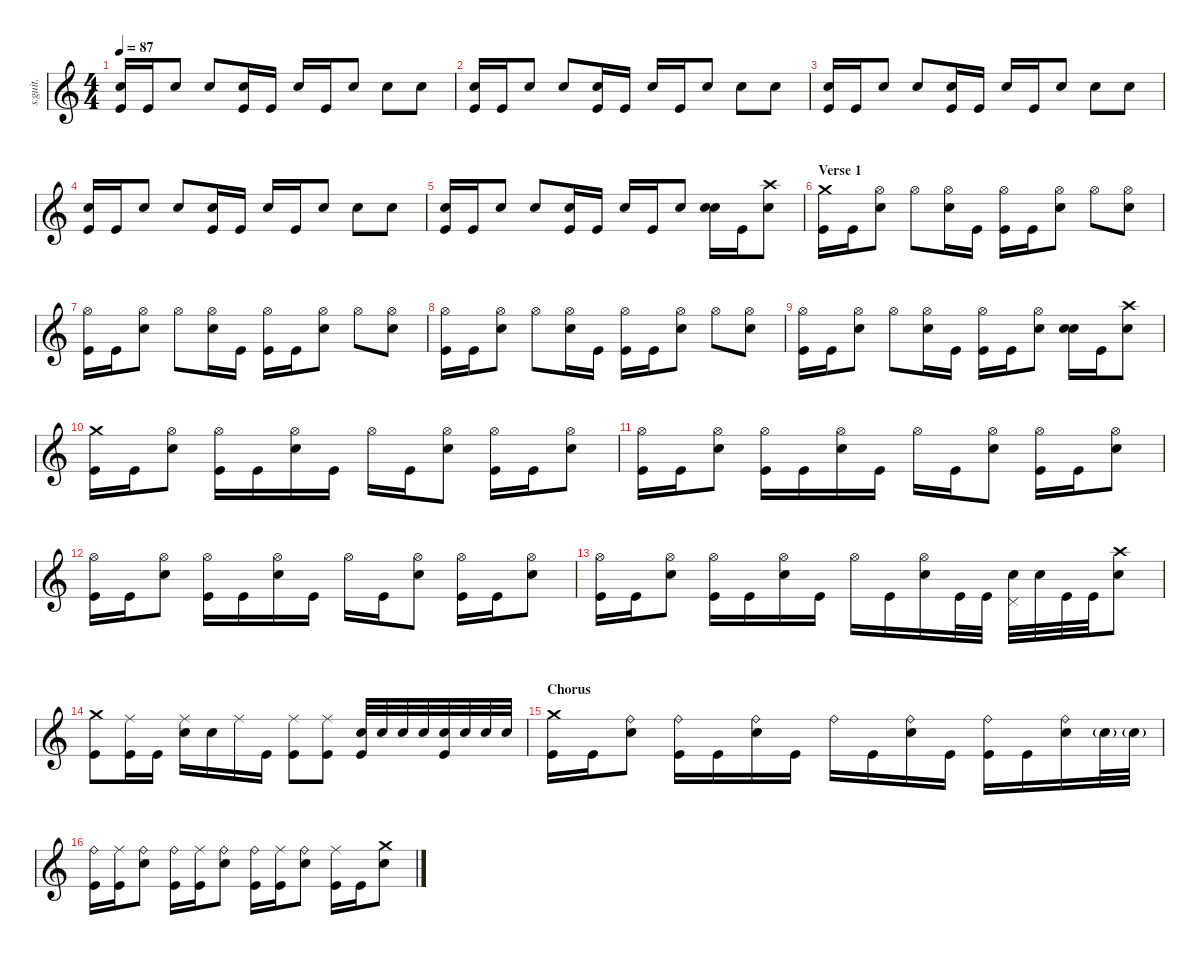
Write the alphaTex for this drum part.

\defaultSystemsLayout 4
\hideDynamics
\bracketExtendMode nobrackets
\track ("Taylor Hawkins (Drums)" "s.guit.") {instrument percussion}
\staff {score}
\articulation defaults
\ts (4 4)
\tempo 87
\clef g2
\ks c
("Snare (hit) 2" "Kick (hit)").16{lyrics (0 "") lyrics (1 "") lyrics (2 "") lyrics (3 "") lyrics (4 "") dy f} "Kick (hit)".16{lyrics (0 "") lyrics (1 "") lyrics (2 "") lyrics (3 "") lyrics (4 "")} "Snare (hit) 2".8{lyrics (0 "") lyrics (1 "") lyrics (2 "") lyrics (3 "") lyrics (4 "")} "Snare (hit) 2".8{lyrics (0 "") lyrics (1 "") lyrics (2 "") lyrics (3 "") lyrics (4 "")} ("Snare (hit) 2" "Kick (hit)").16{lyrics (0 "") lyrics (1 "") lyrics (2 "") lyrics (3 "") lyrics (4 "")} "Kick (hit)".16{lyrics (0 "") lyrics (1 "") lyrics (2 "") lyrics (3 "") lyrics (4 "")} "Snare (hit) 2".16{lyrics (0 "") lyrics (1 "") lyrics (2 "") lyrics (3 "") lyrics (4 "")} "Kick (hit)".16{lyrics (0 "") lyrics (1 "") lyrics (2 "") lyrics (3 "") lyrics (4 "")} "Snare (hit) 2".8{lyrics (0 "") lyrics (1 "") lyrics (2 "") lyrics (3 "") lyrics (4 "")} "Snare (hit) 2".8{lyrics (0 "") lyrics (1 "") lyrics (2 "") lyrics (3 "") lyrics (4 "")} "Snare (hit) 2".8{lyrics (0 "") lyrics (1 "") lyrics (2 "") lyrics (3 "") lyrics (4 "")} |
("Snare (hit) 2" "Kick (hit)").16{lyrics (0 "") lyrics (1 "") lyrics (2 "") lyrics (3 "") lyrics (4 "")} "Kick (hit)".16{lyrics (0 "") lyrics (1 "") lyrics (2 "") lyrics (3 "") lyrics (4 "")} "Snare (hit) 2".8{lyrics (0 "") lyrics (1 "") lyrics (2 "") lyrics (3 "") lyrics (4 "")} "Snare (hit) 2".8{lyrics (0 "") lyrics (1 "") lyrics (2 "") lyrics (3 "") lyrics (4 "")} ("Snare (hit) 2" "Kick (hit)").16{lyrics (0 "") lyrics (1 "") lyrics (2 "") lyrics (3 "") lyrics (4 "")} "Kick (hit)".16{lyrics (0 "") lyrics (1 "") lyrics (2 "") lyrics (3 "") lyrics (4 "")} "Snare (hit) 2".16{lyrics (0 "") lyrics (1 "") lyrics (2 "") lyrics (3 "") lyrics (4 "")} "Kick (hit)".16{lyrics (0 "") lyrics (1 "") lyrics (2 "") lyrics (3 "") lyrics (4 "")} "Snare (hit) 2".8{lyrics (0 "") lyrics (1 "") lyrics (2 "") lyrics (3 "") lyrics (4 "")} "Snare (hit) 2".8{lyrics (0 "") lyrics (1 "") lyrics (2 "") lyrics (3 "") lyrics (4 "")} "Snare (hit) 2".8{lyrics (0 "") lyrics (1 "") lyrics (2 "") lyrics (3 "") lyrics (4 "")} |
("Snare (hit) 2" "Kick (hit)").16{lyrics (0 "") lyrics (1 "") lyrics (2 "") lyrics (3 "") lyrics (4 "")} "Kick (hit)".16{lyrics (0 "") lyrics (1 "") lyrics (2 "") lyrics (3 "") lyrics (4 "")} "Snare (hit) 2".8{lyrics (0 "") lyrics (1 "") lyrics (2 "") lyrics (3 "") lyrics (4 "")} "Snare (hit) 2".8{lyrics (0 "") lyrics (1 "") lyrics (2 "") lyrics (3 "") lyrics (4 "")} ("Snare (hit) 2" "Kick (hit)").16{lyrics (0 "") lyrics (1 "") lyrics (2 "") lyrics (3 "") lyrics (4 "")} "Kick (hit)".16{lyrics (0 "") lyrics (1 "") lyrics (2 "") lyrics (3 "") lyrics (4 "")} "Snare (hit) 2".16{lyrics (0 "") lyrics (1 "") lyrics (2 "") lyrics (3 "") lyrics (4 "")} "Kick (hit)".16{lyrics (0 "") lyrics (1 "") lyrics (2 "") lyrics (3 "") lyrics (4 "")} "Snare (hit) 2".8{lyrics (0 "") lyrics (1 "") lyrics (2 "") lyrics (3 "") lyrics (4 "")} "Snare (hit) 2".8{lyrics (0 "") lyrics (1 "") lyrics (2 "") lyrics (3 "") lyrics (4 "")} "Snare (hit) 2".8{lyrics (0 "") lyrics (1 "") lyrics (2 "") lyrics (3 "") lyrics (4 "")} |
("Snare (hit) 2" "Kick (hit)").16{lyrics (0 "") lyrics (1 "") lyrics (2 "") lyrics (3 "") lyrics (4 "")} "Kick (hit)".16{lyrics (0 "") lyrics (1 "") lyrics (2 "") lyrics (3 "") lyrics (4 "")} "Snare (hit) 2".8{lyrics (0 "") lyrics (1 "") lyrics (2 "") lyrics (3 "") lyrics (4 "")} "Snare (hit) 2".8{lyrics (0 "") lyrics (1 "") lyrics (2 "") lyrics (3 "") lyrics (4 "")} ("Snare (hit) 2" "Kick (hit)").16{lyrics (0 "") lyrics (1 "") lyrics (2 "") lyrics (3 "") lyrics (4 "")} "Kick (hit)".16{lyrics (0 "") lyrics (1 "") lyrics (2 "") lyrics (3 "") lyrics (4 "")} "Snare (hit) 2".16{lyrics (0 "") lyrics (1 "") lyrics (2 "") lyrics (3 "") lyrics (4 "")} "Kick (hit)".16{lyrics (0 "") lyrics (1 "") lyrics (2 "") lyrics (3 "") lyrics (4 "")} "Snare (hit) 2".8{lyrics (0 "") lyrics (1 "") lyrics (2 "") lyrics (3 "") lyrics (4 "")} "Snare (hit) 2".8{lyrics (0 "") lyrics (1 "") lyrics (2 "") lyrics (3 "") lyrics (4 "")} "Snare (hit) 2".8{lyrics (0 "") lyrics (1 "") lyrics (2 "") lyrics (3 "") lyrics (4 "")} |
("Snare (hit) 2" "Kick (hit)").16{lyrics (0 "") lyrics (1 "") lyrics (2 "") lyrics (3 "") lyrics (4 "")} "Kick (hit)".16{lyrics (0 "") lyrics (1 "") lyrics (2 "") lyrics (3 "") lyrics (4 "")} "Snare (hit) 2".8{lyrics (0 "") lyrics (1 "") lyrics (2 "") lyrics (3 "") lyrics (4 "")} "Snare (hit) 2".8{lyrics (0 "") lyrics (1 "") lyrics (2 "") lyrics (3 "") lyrics (4 "")} ("Snare (hit) 2" "Kick (hit)").16{lyrics (0 "") lyrics (1 "") lyrics (2 "") lyrics (3 "") lyrics (4 "")} "Kick (hit)".16{lyrics (0 "") lyrics (1 "") lyrics (2 "") lyrics (3 "") lyrics (4 "")} "Snare (hit) 2".16{lyrics (0 "") lyrics (1 "") lyrics (2 "") lyrics (3 "") lyrics (4 "")} "Kick (hit)".16{lyrics (0 "") lyrics (1 "") lyrics (2 "") lyrics (3 "") lyrics (4 "")} "Snare (hit) 2".8{lyrics (0 "") lyrics (1 "") lyrics (2 "") lyrics (3 "") lyrics (4 "")} ("Snare (hit) 2" "Snare (hit) 2").16{lyrics (0 "") lyrics (1 "") lyrics (2 "") lyrics (3 "") lyrics (4 "")} "Kick (hit)".16{lyrics (0 "") lyrics (1 "") lyrics (2 "") lyrics (3 "") lyrics (4 "")} ("Crash high (hit)" "Snare (hit) 2").8{lyrics (0 "") lyrics (1 "") lyrics (2 "") lyrics (3 "") lyrics (4 "")} |
\section ("" "Verse 1")
("Crash medium (hit)" "Kick (hit)").16{lyrics (0 "") lyrics (1 "") lyrics (2 "") lyrics (3 "") lyrics (4 "")} "Kick (hit)".16{lyrics (0 "") lyrics (1 "") lyrics (2 "") lyrics (3 "") lyrics (4 "")} ("Hi-Hat (open)" "Snare (hit) 2").8{lyrics (0 "") lyrics (1 "") lyrics (2 "") lyrics (3 "") lyrics (4 "")} "Hi-Hat (open)".8{lyrics (0 "") lyrics (1 "") lyrics (2 "") lyrics (3 "") lyrics (4 "")} ("Hi-Hat (open)" "Snare (hit) 2").16{lyrics (0 "") lyrics (1 "") lyrics (2 "") lyrics (3 "") lyrics (4 "")} "Kick (hit)".16{lyrics (0 "") lyrics (1 "") lyrics (2 "") lyrics (3 "") lyrics (4 "")} ("Hi-Hat (open)" "Kick (hit)").16{lyrics (0 "") lyrics (1 "") lyrics (2 "") lyrics (3 "") lyrics (4 "")} "Kick (hit)".16{lyrics (0 "") lyrics (1 "") lyrics (2 "") lyrics (3 "") lyrics (4 "")} ("Hi-Hat (open)" "Snare (hit) 2").8{lyrics (0 "") lyrics (1 "") lyrics (2 "") lyrics (3 "") lyrics (4 "")} "Hi-Hat (open)".8{lyrics (0 "") lyrics (1 "") lyrics (2 "") lyrics (3 "") lyrics (4 "")} ("Hi-Hat (open)" "Snare (hit) 2").8{lyrics (0 "") lyrics (1 "") lyrics (2 "") lyrics (3 "") lyrics (4 "")} |
("Hi-Hat (open)" "Kick (hit)").16{lyrics (0 "") lyrics (1 "") lyrics (2 "") lyrics (3 "") lyrics (4 "")} "Kick (hit)".16{lyrics (0 "") lyrics (1 "") lyrics (2 "") lyrics (3 "") lyrics (4 "")} ("Hi-Hat (open)" "Snare (hit) 2").8{lyrics (0 "") lyrics (1 "") lyrics (2 "") lyrics (3 "") lyrics (4 "")} "Hi-Hat (open)".8{lyrics (0 "") lyrics (1 "") lyrics (2 "") lyrics (3 "") lyrics (4 "")} ("Hi-Hat (open)" "Snare (hit) 2").16{lyrics (0 "") lyrics (1 "") lyrics (2 "") lyrics (3 "") lyrics (4 "")} "Kick (hit)".16{lyrics (0 "") lyrics (1 "") lyrics (2 "") lyrics (3 "") lyrics (4 "")} ("Hi-Hat (open)" "Kick (hit)").16{lyrics (0 "") lyrics (1 "") lyrics (2 "") lyrics (3 "") lyrics (4 "")} "Kick (hit)".16{lyrics (0 "") lyrics (1 "") lyrics (2 "") lyrics (3 "") lyrics (4 "")} ("Hi-Hat (open)" "Snare (hit) 2").8{lyrics (0 "") lyrics (1 "") lyrics (2 "") lyrics (3 "") lyrics (4 "")} "Hi-Hat (open)".8{lyrics (0 "") lyrics (1 "") lyrics (2 "") lyrics (3 "") lyrics (4 "")} ("Hi-Hat (open)" "Snare (hit) 2").8{lyrics (0 "") lyrics (1 "") lyrics (2 "") lyrics (3 "") lyrics (4 "")} |
("Hi-Hat (open)" "Kick (hit)").16{lyrics (0 "") lyrics (1 "") lyrics (2 "") lyrics (3 "") lyrics (4 "")} "Kick (hit)".16{lyrics (0 "") lyrics (1 "") lyrics (2 "") lyrics (3 "") lyrics (4 "")} ("Hi-Hat (open)" "Snare (hit) 2").8{lyrics (0 "") lyrics (1 "") lyrics (2 "") lyrics (3 "") lyrics (4 "")} "Hi-Hat (open)".8{lyrics (0 "") lyrics (1 "") lyrics (2 "") lyrics (3 "") lyrics (4 "")} ("Hi-Hat (open)" "Snare (hit) 2").16{lyrics (0 "") lyrics (1 "") lyrics (2 "") lyrics (3 "") lyrics (4 "")} "Kick (hit)".16{lyrics (0 "") lyrics (1 "") lyrics (2 "") lyrics (3 "") lyrics (4 "")} ("Hi-Hat (open)" "Kick (hit)").16{lyrics (0 "") lyrics (1 "") lyrics (2 "") lyrics (3 "") lyrics (4 "")} "Kick (hit)".16{lyrics (0 "") lyrics (1 "") lyrics (2 "") lyrics (3 "") lyrics (4 "")} ("Hi-Hat (open)" "Snare (hit) 2").8{lyrics (0 "") lyrics (1 "") lyrics (2 "") lyrics (3 "") lyrics (4 "")} "Hi-Hat (open)".8{lyrics (0 "") lyrics (1 "") lyrics (2 "") lyrics (3 "") lyrics (4 "")} ("Hi-Hat (open)" "Snare (hit) 2").8{lyrics (0 "") lyrics (1 "") lyrics (2 "") lyrics (3 "") lyrics (4 "")} |
("Hi-Hat (open)" "Kick (hit)").16{lyrics (0 "") lyrics (1 "") lyrics (2 "") lyrics (3 "") lyrics (4 "")} "Kick (hit)".16{lyrics (0 "") lyrics (1 "") lyrics (2 "") lyrics (3 "") lyrics (4 "")} ("Hi-Hat (open)" "Snare (hit) 2").8{lyrics (0 "") lyrics (1 "") lyrics (2 "") lyrics (3 "") lyrics (4 "")} "Hi-Hat (open)".8{lyrics (0 "") lyrics (1 "") lyrics (2 "") lyrics (3 "") lyrics (4 "")} ("Hi-Hat (open)" "Snare (hit) 2").16{lyrics (0 "") lyrics (1 "") lyrics (2 "") lyrics (3 "") lyrics (4 "")} "Kick (hit)".16{lyrics (0 "") lyrics (1 "") lyrics (2 "") lyrics (3 "") lyrics (4 "")} ("Hi-Hat (open)" "Kick (hit)").16{lyrics (0 "") lyrics (1 "") lyrics (2 "") lyrics (3 "") lyrics (4 "")} "Kick (hit)".16{lyrics (0 "") lyrics (1 "") lyrics (2 "") lyrics (3 "") lyrics (4 "")} ("Hi-Hat (open)" "Snare (hit) 2").8{lyrics (0 "") lyrics (1 "") lyrics (2 "") lyrics (3 "") lyrics (4 "")} ("Snare (hit) 2" "Snare (hit) 2").16{lyrics (0 "") lyrics (1 "") lyrics (2 "") lyrics (3 "") lyrics (4 "")} "Kick (hit)".16{lyrics (0 "") lyrics (1 "") lyrics (2 "") lyrics (3 "") lyrics (4 "")} ("Crash high (hit)" "Snare (hit) 2").8{lyrics (0 "") lyrics (1 "") lyrics (2 "") lyrics (3 "") lyrics (4 "")} |
("Crash medium (hit)" "Kick (hit)").16{lyrics (0 "") lyrics (1 "") lyrics (2 "") lyrics (3 "") lyrics (4 "")} "Kick (hit)".16{lyrics (0 "") lyrics (1 "") lyrics (2 "") lyrics (3 "") lyrics (4 "")} ("Hi-Hat (open)" "Snare (hit) 2").8{lyrics (0 "") lyrics (1 "") lyrics (2 "") lyrics (3 "") lyrics (4 "")} ("Hi-Hat (open)" "Kick (hit)").16{lyrics (0 "") lyrics (1 "") lyrics (2 "") lyrics (3 "") lyrics (4 "")} "Kick (hit)".16{lyrics (0 "") lyrics (1 "") lyrics (2 "") lyrics (3 "") lyrics (4 "")} ("Hi-Hat (open)" "Snare (hit) 2").16{lyrics (0 "") lyrics (1 "") lyrics (2 "") lyrics (3 "") lyrics (4 "")} "Kick (hit)".16{lyrics (0 "") lyrics (1 "") lyrics (2 "") lyrics (3 "") lyrics (4 "")} "Hi-Hat (open)".16{lyrics (0 "") lyrics (1 "") lyrics (2 "") lyrics (3 "") lyrics (4 "")} "Kick (hit)".16{lyrics (0 "") lyrics (1 "") lyrics (2 "") lyrics (3 "") lyrics (4 "")} ("Hi-Hat (open)" "Snare (hit) 2").8{lyrics (0 "") lyrics (1 "") lyrics (2 "") lyrics (3 "") lyrics (4 "")} ("Hi-Hat (open)" "Kick (hit)").16{lyrics (0 "") lyrics (1 "") lyrics (2 "") lyrics (3 "") lyrics (4 "")} "Kick (hit)".16{lyrics (0 "") lyrics (1 "") lyrics (2 "") lyrics (3 "") lyrics (4 "")} ("Hi-Hat (open)" "Snare (hit) 2").8{lyrics (0 "") lyrics (1 "") lyrics (2 "") lyrics (3 "") lyrics (4 "")} |
("Hi-Hat (open)" "Kick (hit)").16{lyrics (0 "") lyrics (1 "") lyrics (2 "") lyrics (3 "") lyrics (4 "")} "Kick (hit)".16{lyrics (0 "") lyrics (1 "") lyrics (2 "") lyrics (3 "") lyrics (4 "")} ("Hi-Hat (open)" "Snare (hit) 2").8{lyrics (0 "") lyrics (1 "") lyrics (2 "") lyrics (3 "") lyrics (4 "")} ("Hi-Hat (open)" "Kick (hit)").16{lyrics (0 "") lyrics (1 "") lyrics (2 "") lyrics (3 "") lyrics (4 "")} "Kick (hit)".16{lyrics (0 "") lyrics (1 "") lyrics (2 "") lyrics (3 "") lyrics (4 "")} ("Hi-Hat (open)" "Snare (hit) 2").16{lyrics (0 "") lyrics (1 "") lyrics (2 "") lyrics (3 "") lyrics (4 "")} "Kick (hit)".16{lyrics (0 "") lyrics (1 "") lyrics (2 "") lyrics (3 "") lyrics (4 "")} "Hi-Hat (open)".16{lyrics (0 "") lyrics (1 "") lyrics (2 "") lyrics (3 "") lyrics (4 "")} "Kick (hit)".16{lyrics (0 "") lyrics (1 "") lyrics (2 "") lyrics (3 "") lyrics (4 "")} ("Hi-Hat (open)" "Snare (hit) 2").8{lyrics (0 "") lyrics (1 "") lyrics (2 "") lyrics (3 "") lyrics (4 "")} ("Hi-Hat (open)" "Kick (hit)").16{lyrics (0 "") lyrics (1 "") lyrics (2 "") lyrics (3 "") lyrics (4 "")} "Kick (hit)".16{lyrics (0 "") lyrics (1 "") lyrics (2 "") lyrics (3 "") lyrics (4 "")} ("Hi-Hat (open)" "Snare (hit) 2").8{lyrics (0 "") lyrics (1 "") lyrics (2 "") lyrics (3 "") lyrics (4 "")} |
("Hi-Hat (open)" "Kick (hit)").16{lyrics (0 "") lyrics (1 "") lyrics (2 "") lyrics (3 "") lyrics (4 "")} "Kick (hit)".16{lyrics (0 "") lyrics (1 "") lyrics (2 "") lyrics (3 "") lyrics (4 "")} ("Hi-Hat (open)" "Snare (hit) 2").8{lyrics (0 "") lyrics (1 "") lyrics (2 "") lyrics (3 "") lyrics (4 "")} ("Hi-Hat (open)" "Kick (hit)").16{lyrics (0 "") lyrics (1 "") lyrics (2 "") lyrics (3 "") lyrics (4 "")} "Kick (hit)".16{lyrics (0 "") lyrics (1 "") lyrics (2 "") lyrics (3 "") lyrics (4 "")} ("Hi-Hat (open)" "Snare (hit) 2").16{lyrics (0 "") lyrics (1 "") lyrics (2 "") lyrics (3 "") lyrics (4 "")} "Kick (hit)".16{lyrics (0 "") lyrics (1 "") lyrics (2 "") lyrics (3 "") lyrics (4 "")} "Hi-Hat (open)".16{lyrics (0 "") lyrics (1 "") lyrics (2 "") lyrics (3 "") lyrics (4 "")} "Kick (hit)".16{lyrics (0 "") lyrics (1 "") lyrics (2 "") lyrics (3 "") lyrics (4 "")} ("Hi-Hat (open)" "Snare (hit) 2").8{lyrics (0 "") lyrics (1 "") lyrics (2 "") lyrics (3 "") lyrics (4 "")} ("Hi-Hat (open)" "Kick (hit)").16{lyrics (0 "") lyrics (1 "") lyrics (2 "") lyrics (3 "") lyrics (4 "")} "Kick (hit)".16{lyrics (0 "") lyrics (1 "") lyrics (2 "") lyrics (3 "") lyrics (4 "")} ("Hi-Hat (open)" "Snare (hit) 2").8{lyrics (0 "") lyrics (1 "") lyrics (2 "") lyrics (3 "") lyrics (4 "")} |
("Hi-Hat (open)" "Kick (hit)").16{lyrics (0 "") lyrics (1 "") lyrics (2 "") lyrics (3 "") lyrics (4 "")} "Kick (hit)".16{lyrics (0 "") lyrics (1 "") lyrics (2 "") lyrics (3 "") lyrics (4 "")} ("Hi-Hat (open)" "Snare (hit) 2").8{lyrics (0 "") lyrics (1 "") lyrics (2 "") lyrics (3 "") lyrics (4 "")} ("Hi-Hat (open)" "Kick (hit)").16{lyrics (0 "") lyrics (1 "") lyrics (2 "") lyrics (3 "") lyrics (4 "")} "Kick (hit)".16{lyrics (0 "") lyrics (1 "") lyrics (2 "") lyrics (3 "") lyrics (4 "")} ("Hi-Hat (open)" "Snare (hit) 2").16{lyrics (0 "") lyrics (1 "") lyrics (2 "") lyrics (3 "") lyrics (4 "")} "Kick (hit)".16{lyrics (0 "") lyrics (1 "") lyrics (2 "") lyrics (3 "") lyrics (4 "")} "Hi-Hat (open)".16{lyrics (0 "") lyrics (1 "") lyrics (2 "") lyrics (3 "") lyrics (4 "")} "Kick (hit)".16{lyrics (0 "") lyrics (1 "") lyrics (2 "") lyrics (3 "") lyrics (4 "")} ("Hi-Hat (open)" "Snare (hit) 2").16{lyrics (0 "") lyrics (1 "") lyrics (2 "") lyrics (3 "") lyrics (4 "")} "Kick (hit)".32{lyrics (0 "") lyrics (1 "") lyrics (2 "") lyrics (3 "") lyrics (4 "")} "Kick (hit)".32{lyrics (0 "") lyrics (1 "") lyrics (2 "") lyrics (3 "") lyrics (4 "")} ("Snare (hit) 2" "Pedal Hi-Hat (hit)").32{lyrics (0 "") lyrics (1 "") lyrics (2 "") lyrics (3 "") lyrics (4 "")} "Snare (hit) 2".32{lyrics (0 "") lyrics (1 "") lyrics (2 "") lyrics (3 "") lyrics (4 "")} "Kick (hit)".32{lyrics (0 "") lyrics (1 "") lyrics (2 "") lyrics (3 "") lyrics (4 "")} "Kick (hit)".32{lyrics (0 "") lyrics (1 "") lyrics (2 "") lyrics (3 "") lyrics (4 "")} ("Crash high (hit)" "Snare (hit) 2").8{lyrics (0 "") lyrics (1 "") lyrics (2 "") lyrics (3 "") lyrics (4 "")} |
("Crash medium (hit)" "Kick (hit)").8{lyrics (0 "") lyrics (1 "") lyrics (2 "") lyrics (3 "") lyrics (4 "")} ("Ride (middle)" "Kick (hit)").16{lyrics (0 "") lyrics (1 "") lyrics (2 "") lyrics (3 "") lyrics (4 "")} "Kick (hit)".16{lyrics (0 "") lyrics (1 "") lyrics (2 "") lyrics (3 "") lyrics (4 "")} ("Ride (middle)" "Snare (hit) 2").16{lyrics (0 "") lyrics (1 "") lyrics (2 "") lyrics (3 "") lyrics (4 "")} "Snare (hit) 2".16{lyrics (0 "") lyrics (1 "") lyrics (2 "") lyrics (3 "") lyrics (4 "")} "Ride (middle)".16{lyrics (0 "") lyrics (1 "") lyrics (2 "") lyrics (3 "") lyrics (4 "")} "Kick (hit)".16{lyrics (0 "") lyrics (1 "") lyrics (2 "") lyrics (3 "") lyrics (4 "")} ("Ride (middle)" "Kick (hit)").8{lyrics (0 "") lyrics (1 "") lyrics (2 "") lyrics (3 "") lyrics (4 "")} ("Ride (middle)" "Kick (hit)").8{lyrics (0 "") lyrics (1 "") lyrics (2 "") lyrics (3 "") lyrics (4 "")} ("Snare (hit) 2" "Kick (hit)").32{lyrics (0 "") lyrics (1 "") lyrics (2 "") lyrics (3 "") lyrics (4 "")} "Snare (hit) 2".32{lyrics (0 "") lyrics (1 "") lyrics (2 "") lyrics (3 "") lyrics (4 "")} "Snare (hit) 2".32{lyrics (0 "") lyrics (1 "") lyrics (2 "") lyrics (3 "") lyrics (4 "")} "Snare (hit) 2".32{lyrics (0 "") lyrics (1 "") lyrics (2 "") lyrics (3 "") lyrics (4 "")} ("Snare (hit) 2" "Kick (hit)").32{lyrics (0 "") lyrics (1 "") lyrics (2 "") lyrics (3 "") lyrics (4 "")} "Snare (hit) 2".32{lyrics (0 "") lyrics (1 "") lyrics (2 "") lyrics (3 "") lyrics (4 "")} "Snare (hit) 2".32{lyrics (0 "") lyrics (1 "") lyrics (2 "") lyrics (3 "") lyrics (4 "")} "Snare (hit) 2".32{lyrics (0 "") lyrics (1 "") lyrics (2 "") lyrics (3 "") lyrics (4 "")} |
\section ("" "Chorus")
("Crash medium (hit)" "Kick (hit)").16{lyrics (0 "") lyrics (1 "") lyrics (2 "") lyrics (3 "") lyrics (4 "")} "Kick (hit)".16{lyrics (0 "") lyrics (1 "") lyrics (2 "") lyrics (3 "") lyrics (4 "")} ("Ride (bell)" "Snare (hit) 2").8{lyrics (0 "") lyrics (1 "") lyrics (2 "") lyrics (3 "") lyrics (4 "")} ("Ride (bell)" "Kick (hit)").16{lyrics (0 "") lyrics (1 "") lyrics (2 "") lyrics (3 "") lyrics (4 "")} "Kick (hit)".16{lyrics (0 "") lyrics (1 "") lyrics (2 "") lyrics (3 "") lyrics (4 "")} ("Ride (bell)" "Snare (hit) 2").16{lyrics (0 "") lyrics (1 "") lyrics (2 "") lyrics (3 "") lyrics (4 "")} "Kick (hit)".16{lyrics (0 "") lyrics (1 "") lyrics (2 "") lyrics (3 "") lyrics (4 "")} "Ride (bell)".16{lyrics (0 "") lyrics (1 "") lyrics (2 "") lyrics (3 "") lyrics (4 "")} "Kick (hit)".16{lyrics (0 "") lyrics (1 "") lyrics (2 "") lyrics (3 "") lyrics (4 "")} ("Ride (bell)" "Snare (hit) 2").16{lyrics (0 "") lyrics (1 "") lyrics (2 "") lyrics (3 "") lyrics (4 "")} "Kick (hit)".16{lyrics (0 "") lyrics (1 "") lyrics (2 "") lyrics (3 "") lyrics (4 "")} ("Ride (bell)" "Kick (hit)").16{lyrics (0 "") lyrics (1 "") lyrics (2 "") lyrics (3 "") lyrics (4 "")} "Kick (hit)".16{lyrics (0 "") lyrics (1 "") lyrics (2 "") lyrics (3 "") lyrics (4 "")} ("Ride (bell)" "Snare (hit) 2").16{lyrics (0 "") lyrics (1 "") lyrics (2 "") lyrics (3 "") lyrics (4 "")} "Snare (hit) 2"{g}.32{lyrics (0 "") lyrics (1 "") lyrics (2 "") lyrics (3 "") lyrics (4 "") dy pp} "Snare (hit) 2"{g}.32{lyrics (0 "") lyrics (1 "") lyrics (2 "") lyrics (3 "") lyrics (4 "")} |
("Ride (bell)" "Kick (hit)").16{lyrics (0 "") lyrics (1 "") lyrics (2 "") lyrics (3 "") lyrics (4 "") dy f} ("Ride (middle)" "Kick (hit)").16{lyrics (0 "") lyrics (1 "") lyrics (2 "") lyrics (3 "") lyrics (4 "")} ("Ride (bell)" "Snare (hit) 2").8{lyrics (0 "") lyrics (1 "") lyrics (2 "") lyrics (3 "") lyrics (4 "")} ("Ride (bell)" "Kick (hit)").16{lyrics (0 "") lyrics (1 "") lyrics (2 "") lyrics (3 "") lyrics (4 "")} ("Ride (middle)" "Kick (hit)").16{lyrics (0 "") lyrics (1 "") lyrics (2 "") lyrics (3 "") lyrics (4 "")} ("Ride (bell)" "Snare (hit) 2").8{lyrics (0 "") lyrics (1 "") lyrics (2 "") lyrics (3 "") lyrics (4 "")} ("Ride (bell)" "Kick (hit)").16{lyrics (0 "") lyrics (1 "") lyrics (2 "") lyrics (3 "") lyrics (4 "")} ("Ride (middle)" "Kick (hit)").16{lyrics (0 "") lyrics (1 "") lyrics (2 "") lyrics (3 "") lyrics (4 "")} ("Ride (bell)" "Snare (hit) 2").8{lyrics (0 "") lyrics (1 "") lyrics (2 "") lyrics (3 "") lyrics (4 "")} ("Ride (middle)" "Kick (hit)").16{lyrics (0 "") lyrics (1 "") lyrics (2 "") lyrics (3 "") lyrics (4 "")} "Kick (hit)".16{lyrics (0 "") lyrics (1 "") lyrics (2 "") lyrics (3 "") lyrics (4 "")} ("Crash medium (hit)" "Snare (hit) 2").8{lyrics (0 "") lyrics (1 "") lyrics (2 "") lyrics (3 "") lyrics (4 "")}
